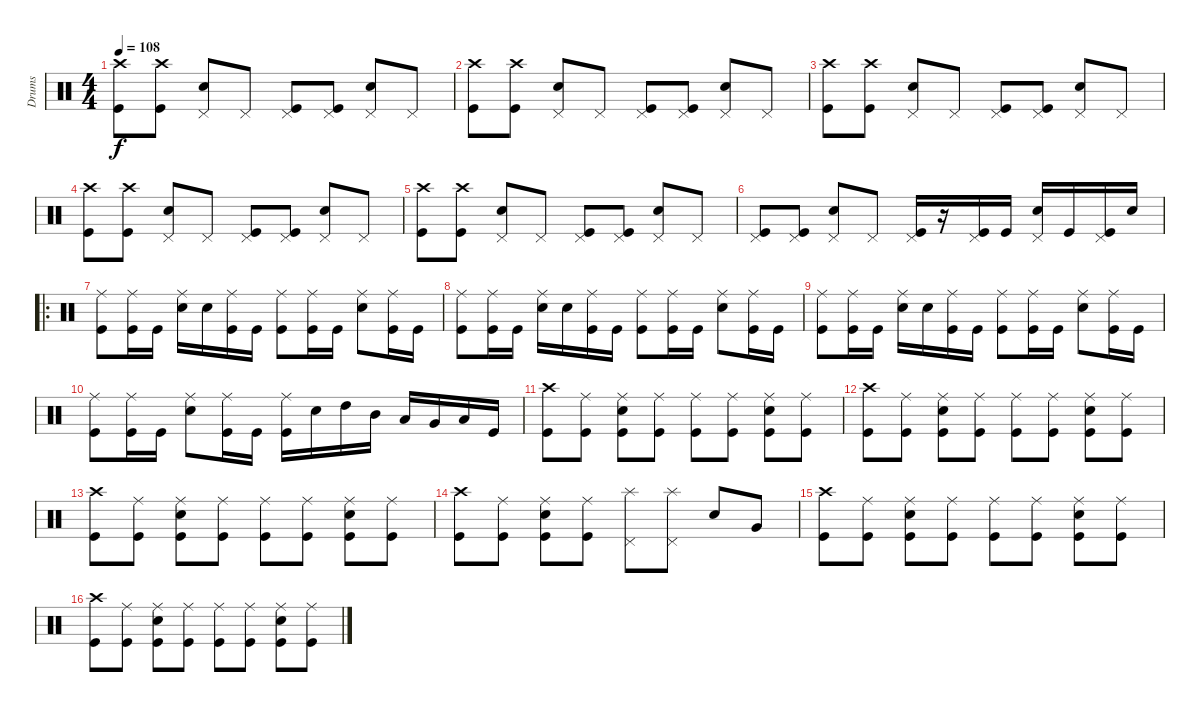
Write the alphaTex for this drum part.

\track ("Drums" "Drums") {instrument percussion}
\staff {score}
\articulation defaults
\ts (4 4)
\tempo 108
\clef neutral
\ks c
("Crash high (hit)" "Kick (hit)").8{dy f} ("Crash high (hit)" "Kick (hit)").8 ("Pedal Hi-Hat (hit)" "Electric Snare (hit)").8 "Pedal Hi-Hat (hit)".8 ("Pedal Hi-Hat (hit)" "Kick (hit)").8 ("Pedal Hi-Hat (hit)" "Kick (hit)").8 ("Pedal Hi-Hat (hit)" "Electric Snare (hit)").8 "Pedal Hi-Hat (hit)".8 |
("Crash high (hit)" "Kick (hit)").8 ("Crash high (hit)" "Kick (hit)").8 ("Pedal Hi-Hat (hit)" "Electric Snare (hit)").8 "Pedal Hi-Hat (hit)".8 ("Pedal Hi-Hat (hit)" "Kick (hit)").8 ("Pedal Hi-Hat (hit)" "Kick (hit)").8 ("Pedal Hi-Hat (hit)" "Electric Snare (hit)").8 "Pedal Hi-Hat (hit)".8 |
("Crash high (hit)" "Kick (hit)").8 ("Crash high (hit)" "Kick (hit)").8 ("Pedal Hi-Hat (hit)" "Electric Snare (hit)").8 "Pedal Hi-Hat (hit)".8 ("Pedal Hi-Hat (hit)" "Kick (hit)").8 ("Pedal Hi-Hat (hit)" "Kick (hit)").8 ("Pedal Hi-Hat (hit)" "Electric Snare (hit)").8 "Pedal Hi-Hat (hit)".8 |
("Crash high (hit)" "Kick (hit)").8 ("Crash high (hit)" "Kick (hit)").8 ("Pedal Hi-Hat (hit)" "Electric Snare (hit)").8 "Pedal Hi-Hat (hit)".8 ("Pedal Hi-Hat (hit)" "Kick (hit)").8 ("Pedal Hi-Hat (hit)" "Kick (hit)").8 ("Pedal Hi-Hat (hit)" "Electric Snare (hit)").8 "Pedal Hi-Hat (hit)".8 |
("Crash high (hit)" "Kick (hit)").8 ("Crash high (hit)" "Kick (hit)").8 ("Pedal Hi-Hat (hit)" "Electric Snare (hit)").8 "Pedal Hi-Hat (hit)".8 ("Pedal Hi-Hat (hit)" "Kick (hit)").8 ("Pedal Hi-Hat (hit)" "Kick (hit)").8 ("Pedal Hi-Hat (hit)" "Electric Snare (hit)").8 "Pedal Hi-Hat (hit)".8 |
("Pedal Hi-Hat (hit)" "Kick (hit)").8 ("Pedal Hi-Hat (hit)" "Kick (hit)").8 ("Pedal Hi-Hat (hit)" "Electric Snare (hit)").8 "Pedal Hi-Hat (hit)".8 ("Pedal Hi-Hat (hit)" "Kick (hit)").16 r.16 ("Pedal Hi-Hat (hit)" "Kick (hit)").16 "Kick (hit)".16 ("Pedal Hi-Hat (hit)" "Electric Snare (hit)").16 "Kick (hit)".16 ("Pedal Hi-Hat (hit)" "Kick (hit)").16 "Electric Snare (hit)".16 |
\ro
("Ride (middle)" "Kick (hit)").8 ("Ride (middle)" "Kick (hit)").16 "Kick (hit)".16 ("Ride (middle)" "Electric Snare (hit)").16 "Electric Snare (hit)".16 ("Ride (middle)" "Kick (hit)").16 "Kick (hit)".16 ("Ride (middle)" "Kick (hit)").8 ("Ride (middle)" "Kick (hit)").16 "Kick (hit)".16 ("Ride (middle)" "Electric Snare (hit)").8 ("Ride (middle)" "Kick (hit)").16 "Kick (hit)".16 |
("Ride (middle)" "Kick (hit)").8 ("Ride (middle)" "Kick (hit)").16 "Kick (hit)".16 ("Ride (middle)" "Electric Snare (hit)").16 "Electric Snare (hit)".16 ("Ride (middle)" "Kick (hit)").16 "Kick (hit)".16 ("Ride (middle)" "Kick (hit)").8 ("Ride (middle)" "Kick (hit)").16 "Kick (hit)".16 ("Ride (middle)" "Electric Snare (hit)").8 ("Ride (middle)" "Kick (hit)").16 "Kick (hit)".16 |
("Ride (middle)" "Kick (hit)").8 ("Ride (middle)" "Kick (hit)").16 "Kick (hit)".16 ("Ride (middle)" "Electric Snare (hit)").16 "Electric Snare (hit)".16 ("Ride (middle)" "Kick (hit)").16 "Kick (hit)".16 ("Ride (middle)" "Kick (hit)").8 ("Ride (middle)" "Kick (hit)").16 "Kick (hit)".16 ("Ride (middle)" "Electric Snare (hit)").8 ("Ride (middle)" "Kick (hit)").16 "Kick (hit)".16 |
("Ride (middle)" "Kick (hit)").8 ("Ride (middle)" "Kick (hit)").16 "Kick (hit)".16 ("Ride (middle)" "Electric Snare (hit)").8 ("Ride (middle)" "Kick (hit)").16 "Kick (hit)".16 ("Ride (middle)" "Kick (hit)").16 "Electric Snare (hit)".16 "High Tom (hit)".16 "Mid Tom (hit)".16 "Low Tom (hit)".16 "Very Low Tom (hit)".16 "Low Floor Tom (hit)".16 "Kick (hit)".16 |
("Crash high (hit)" "Kick (hit)").8 ("Ride (middle)" "Kick (hit)").8 ("Ride (middle)" "Electric Snare (hit)" "Kick (hit)").8 ("Ride (middle)" "Kick (hit)").8 ("Ride (middle)" "Kick (hit)").8 ("Ride (middle)" "Kick (hit)").8 ("Ride (middle)" "Electric Snare (hit)" "Kick (hit)").8 ("Ride (middle)" "Kick (hit)").8 |
("Crash high (hit)" "Kick (hit)").8 ("Ride (middle)" "Kick (hit)").8 ("Ride (middle)" "Electric Snare (hit)" "Kick (hit)").8 ("Ride (middle)" "Kick (hit)").8 ("Ride (middle)" "Kick (hit)").8 ("Ride (middle)" "Kick (hit)").8 ("Ride (middle)" "Electric Snare (hit)" "Kick (hit)").8 ("Ride (middle)" "Kick (hit)").8 |
("Crash high (hit)" "Kick (hit)").8 ("Ride (middle)" "Kick (hit)").8 ("Ride (middle)" "Electric Snare (hit)" "Kick (hit)").8 ("Ride (middle)" "Kick (hit)").8 ("Ride (middle)" "Kick (hit)").8 ("Ride (middle)" "Kick (hit)").8 ("Ride (middle)" "Electric Snare (hit)" "Kick (hit)").8 ("Ride (middle)" "Kick (hit)").8 |
("Crash high (hit)" "Kick (hit)").8 ("Ride (middle)" "Kick (hit)").8 ("Ride (middle)" "Electric Snare (hit)" "Kick (hit)").8 ("Ride (middle)" "Kick (hit)").8 ("Pedal Hi-Hat (hit)" "Splash (hit)").8 ("Splash (hit)" "Pedal Hi-Hat (hit)").8 "Electric Snare (hit)".8 "Very Low Tom (hit)".8 |
("Crash high (hit)" "Kick (hit)").8 ("Ride (middle)" "Kick (hit)").8 ("Ride (middle)" "Electric Snare (hit)" "Kick (hit)").8 ("Ride (middle)" "Kick (hit)").8 ("Ride (middle)" "Kick (hit)").8 ("Ride (middle)" "Kick (hit)").8 ("Ride (middle)" "Electric Snare (hit)" "Kick (hit)").8 ("Ride (middle)" "Kick (hit)").8 |
("Crash high (hit)" "Kick (hit)").8 ("Ride (middle)" "Kick (hit)").8 ("Ride (middle)" "Electric Snare (hit)" "Kick (hit)").8 ("Ride (middle)" "Kick (hit)").8 ("Ride (middle)" "Kick (hit)").8 ("Ride (middle)" "Kick (hit)").8 ("Ride (middle)" "Electric Snare (hit)" "Kick (hit)").8 ("Ride (middle)" "Kick (hit)").8
